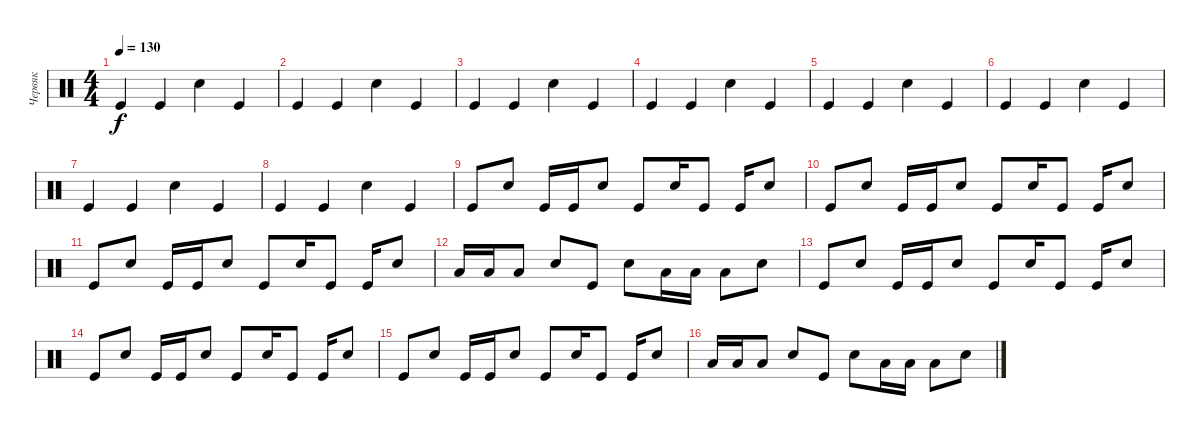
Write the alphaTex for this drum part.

\track ("Червяк" "Червяк") {instrument percussion}
\staff {score}
\articulation defaults
\ts (4 4)
\tempo 130
\clef neutral
\ks c "Kick (hit)".4{dy f} "Kick (hit)".4 "Electric Snare (hit)".4 "Kick (hit)".4
|
"Kick (hit)".4 "Kick (hit)".4 "Electric Snare (hit)".4 "Kick (hit)".4 |
"Kick (hit)".4 "Kick (hit)".4 "Electric Snare (hit)".4 "Kick (hit)".4 |
"Kick (hit)".4 "Kick (hit)".4 "Electric Snare (hit)".4 "Kick (hit)".4 |
"Kick (hit)".4 "Kick (hit)".4 "Electric Snare (hit)".4 "Kick (hit)".4 |
"Kick (hit)".4 "Kick (hit)".4 "Electric Snare (hit)".4 "Kick (hit)".4 |
"Kick (hit)".4 "Kick (hit)".4 "Electric Snare (hit)".4 "Kick (hit)".4 |
"Kick (hit)".4 "Kick (hit)".4 "Electric Snare (hit)".4 "Kick (hit)".4 |
"Kick (hit)".8 "Electric Snare (hit)".8 "Kick (hit)".16 "Kick (hit)".16 "Electric Snare (hit)".8 "Kick (hit)".8 "Electric Snare (hit)".16 "Kick (hit)".8 "Kick (hit)".16 "Electric Snare (hit)".8 |
"Kick (hit)".8 "Electric Snare (hit)".8 "Kick (hit)".16 "Kick (hit)".16 "Electric Snare (hit)".8 "Kick (hit)".8 "Electric Snare (hit)".16 "Kick (hit)".8 "Kick (hit)".16 "Electric Snare (hit)".8 |
"Kick (hit)".8 "Electric Snare (hit)".8 "Kick (hit)".16 "Kick (hit)".16 "Electric Snare (hit)".8 "Kick (hit)".8 "Electric Snare (hit)".16 "Kick (hit)".8 "Kick (hit)".16 "Electric Snare (hit)".8 |
"Low Floor Tom (hit)".16 "Low Floor Tom (hit)".16 "Low Floor Tom (hit)".8 "Electric Snare (hit)".8 "Kick (hit)".8 "Electric Snare (hit)".8 "Low Floor Tom (hit)".16 "Low Floor Tom (hit)".16 "Low Floor Tom (hit)".8 "Electric Snare (hit)".8 |
"Kick (hit)".8 "Electric Snare (hit)".8 "Kick (hit)".16 "Kick (hit)".16 "Electric Snare (hit)".8 "Kick (hit)".8 "Electric Snare (hit)".16 "Kick (hit)".8 "Kick (hit)".16 "Electric Snare (hit)".8 |
"Kick (hit)".8 "Electric Snare (hit)".8 "Kick (hit)".16 "Kick (hit)".16 "Electric Snare (hit)".8 "Kick (hit)".8 "Electric Snare (hit)".16 "Kick (hit)".8 "Kick (hit)".16 "Electric Snare (hit)".8 |
"Kick (hit)".8 "Electric Snare (hit)".8 "Kick (hit)".16 "Kick (hit)".16 "Electric Snare (hit)".8 "Kick (hit)".8 "Electric Snare (hit)".16 "Kick (hit)".8 "Kick (hit)".16 "Electric Snare (hit)".8 |
"Low Floor Tom (hit)".16 "Low Floor Tom (hit)".16 "Low Floor Tom (hit)".8 "Electric Snare (hit)".8 "Kick (hit)".8 "Electric Snare (hit)".8 "Low Floor Tom (hit)".16 "Low Floor Tom (hit)".16 "Low Floor Tom (hit)".8 "Electric Snare (hit)".8
